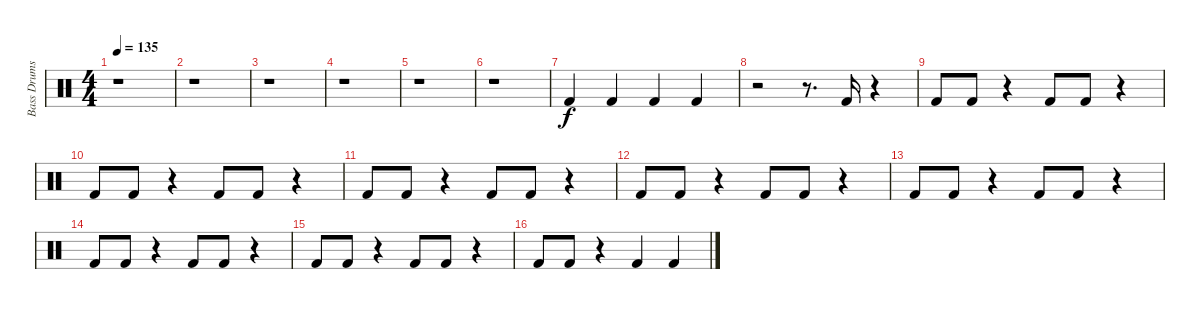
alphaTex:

\track ("Bass Drums" "Bass Drums") {instrument percussion}
\staff {score}
\articulation defaults
\ts (4 4)
\tempo 135
\clef neutral
\ks c
r.1{dy f} |
r.1 |
r.1 |
r.1 |
r.1 |
r.1 |
"Kick (hit) 2".4 "Kick (hit) 2".4 "Kick (hit) 2".4 "Kick (hit) 2".4 |
r.2 r.8{d} "Kick (hit) 2".16 r.4 |
"Kick (hit) 2".8 "Kick (hit) 2".8 r.4 "Kick (hit) 2".8 "Kick (hit) 2".8 r.4 |
"Kick (hit) 2".8 "Kick (hit) 2".8 r.4 "Kick (hit) 2".8 "Kick (hit) 2".8 r.4 |
"Kick (hit) 2".8 "Kick (hit) 2".8 r.4 "Kick (hit) 2".8 "Kick (hit) 2".8 r.4 |
"Kick (hit) 2".8 "Kick (hit) 2".8 r.4 "Kick (hit) 2".8 "Kick (hit) 2".8 r.4 |
"Kick (hit) 2".8 "Kick (hit) 2".8 r.4 "Kick (hit) 2".8 "Kick (hit) 2".8 r.4 |
"Kick (hit) 2".8 "Kick (hit) 2".8 r.4 "Kick (hit) 2".8 "Kick (hit) 2".8 r.4 |
"Kick (hit) 2".8 "Kick (hit) 2".8 r.4 "Kick (hit) 2".8 "Kick (hit) 2".8 r.4 |
"Kick (hit) 2".8 "Kick (hit) 2".8 r.4 "Kick (hit) 2".4 "Kick (hit) 2".4
